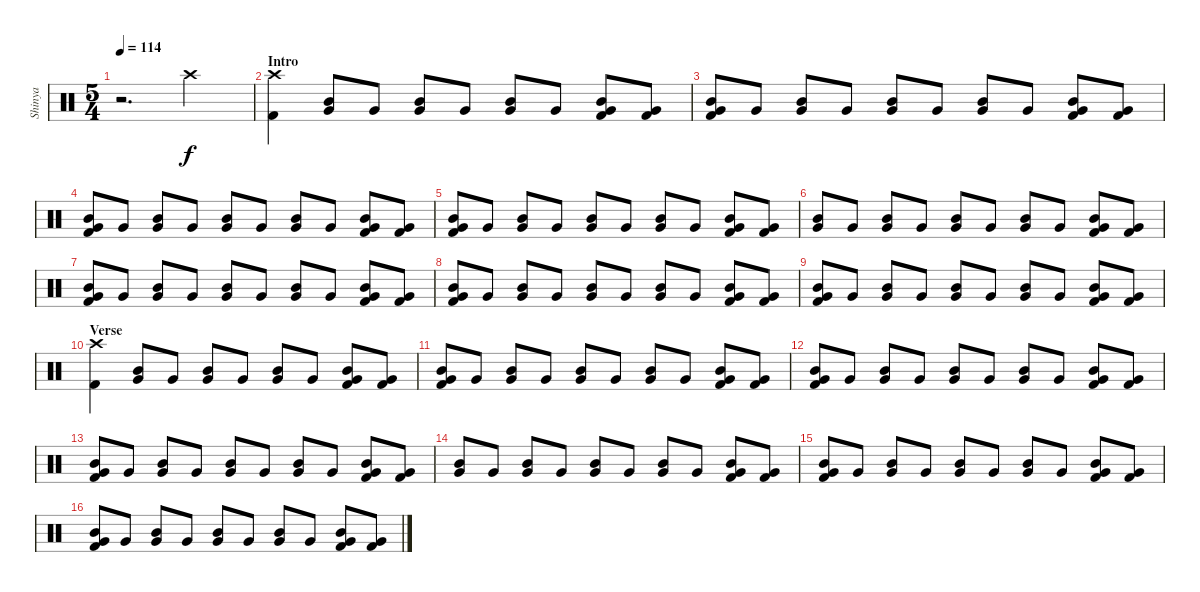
\track ("Shinya" "Shinya") {instrument percussion}
\staff {score}
\articulation defaults
\ts (5 4)
\tempo 114
\clef neutral
\ks c
r.2{d dy f} "Crash high (hit)".2 |
\section ("" "Intro")
("Crash high (hit)" "Kick (hit) 2").4 ("Mid Tom (hit)" "Very Low Tom (hit)").8 "Very Low Tom (hit)".8 ("Mid Tom (hit)" "Very Low Tom (hit)").8 "Very Low Tom (hit)".8 ("Mid Tom (hit)" "Very Low Tom (hit)").8 "Very Low Tom (hit)".8 ("Mid Tom (hit)" "Very Low Tom (hit)" "Kick (hit) 2").8 ("Very Low Tom (hit)" "Kick (hit) 2").8 |
("Mid Tom (hit)" "Very Low Tom (hit)" "Kick (hit) 2").8 "Very Low Tom (hit)".8 ("Mid Tom (hit)" "Very Low Tom (hit)").8 "Very Low Tom (hit)".8 ("Mid Tom (hit)" "Very Low Tom (hit)").8 "Very Low Tom (hit)".8 ("Mid Tom (hit)" "Very Low Tom (hit)").8 "Very Low Tom (hit)".8 ("Mid Tom (hit)" "Very Low Tom (hit)" "Kick (hit) 2").8 ("Very Low Tom (hit)" "Kick (hit) 2").8 |
("Mid Tom (hit)" "Very Low Tom (hit)" "Kick (hit) 2").8 "Very Low Tom (hit)".8 ("Mid Tom (hit)" "Very Low Tom (hit)").8 "Very Low Tom (hit)".8 ("Mid Tom (hit)" "Very Low Tom (hit)").8 "Very Low Tom (hit)".8 ("Mid Tom (hit)" "Very Low Tom (hit)").8 "Very Low Tom (hit)".8 ("Mid Tom (hit)" "Very Low Tom (hit)" "Kick (hit) 2").8 ("Very Low Tom (hit)" "Kick (hit) 2").8 |
("Mid Tom (hit)" "Very Low Tom (hit)" "Kick (hit) 2").8 "Very Low Tom (hit)".8 ("Mid Tom (hit)" "Very Low Tom (hit)").8 "Very Low Tom (hit)".8 ("Mid Tom (hit)" "Very Low Tom (hit)").8 "Very Low Tom (hit)".8 ("Mid Tom (hit)" "Very Low Tom (hit)").8 "Very Low Tom (hit)".8 ("Mid Tom (hit)" "Very Low Tom (hit)" "Kick (hit) 2").8 ("Very Low Tom (hit)" "Kick (hit) 2").8 |
("Mid Tom (hit)" "Very Low Tom (hit)").8 "Very Low Tom (hit)".8 ("Mid Tom (hit)" "Very Low Tom (hit)").8 "Very Low Tom (hit)".8 ("Mid Tom (hit)" "Very Low Tom (hit)").8 "Very Low Tom (hit)".8 ("Mid Tom (hit)" "Very Low Tom (hit)").8 "Very Low Tom (hit)".8 ("Mid Tom (hit)" "Very Low Tom (hit)" "Kick (hit) 2").8 ("Very Low Tom (hit)" "Kick (hit) 2").8 |
("Mid Tom (hit)" "Very Low Tom (hit)" "Kick (hit) 2").8 "Very Low Tom (hit)".8 ("Mid Tom (hit)" "Very Low Tom (hit)").8 "Very Low Tom (hit)".8 ("Mid Tom (hit)" "Very Low Tom (hit)").8 "Very Low Tom (hit)".8 ("Mid Tom (hit)" "Very Low Tom (hit)").8 "Very Low Tom (hit)".8 ("Mid Tom (hit)" "Very Low Tom (hit)" "Kick (hit) 2").8 ("Very Low Tom (hit)" "Kick (hit) 2").8 |
("Mid Tom (hit)" "Very Low Tom (hit)" "Kick (hit) 2").8 "Very Low Tom (hit)".8 ("Mid Tom (hit)" "Very Low Tom (hit)").8 "Very Low Tom (hit)".8 ("Mid Tom (hit)" "Very Low Tom (hit)").8 "Very Low Tom (hit)".8 ("Mid Tom (hit)" "Very Low Tom (hit)").8 "Very Low Tom (hit)".8 ("Mid Tom (hit)" "Very Low Tom (hit)" "Kick (hit) 2").8 ("Very Low Tom (hit)" "Kick (hit) 2").8 |
("Mid Tom (hit)" "Very Low Tom (hit)" "Kick (hit) 2").8 "Very Low Tom (hit)".8 ("Mid Tom (hit)" "Very Low Tom (hit)").8 "Very Low Tom (hit)".8 ("Mid Tom (hit)" "Very Low Tom (hit)").8 "Very Low Tom (hit)".8 ("Mid Tom (hit)" "Very Low Tom (hit)").8 "Very Low Tom (hit)".8 ("Mid Tom (hit)" "Very Low Tom (hit)" "Kick (hit) 2").8 ("Very Low Tom (hit)" "Kick (hit) 2").8 |
\section ("" "Verse")
("Crash high (hit)" "Kick (hit) 2").4 ("Mid Tom (hit)" "Very Low Tom (hit)").8 "Very Low Tom (hit)".8 ("Mid Tom (hit)" "Very Low Tom (hit)").8 "Very Low Tom (hit)".8 ("Mid Tom (hit)" "Very Low Tom (hit)").8 "Very Low Tom (hit)".8 ("Mid Tom (hit)" "Very Low Tom (hit)" "Kick (hit) 2").8 ("Very Low Tom (hit)" "Kick (hit) 2").8 |
("Mid Tom (hit)" "Very Low Tom (hit)" "Kick (hit) 2").8 "Very Low Tom (hit)".8 ("Mid Tom (hit)" "Very Low Tom (hit)").8 "Very Low Tom (hit)".8 ("Mid Tom (hit)" "Very Low Tom (hit)").8 "Very Low Tom (hit)".8 ("Mid Tom (hit)" "Very Low Tom (hit)").8 "Very Low Tom (hit)".8 ("Mid Tom (hit)" "Very Low Tom (hit)" "Kick (hit) 2").8 ("Very Low Tom (hit)" "Kick (hit) 2").8 |
("Mid Tom (hit)" "Very Low Tom (hit)" "Kick (hit) 2").8 "Very Low Tom (hit)".8 ("Mid Tom (hit)" "Very Low Tom (hit)").8 "Very Low Tom (hit)".8 ("Mid Tom (hit)" "Very Low Tom (hit)").8 "Very Low Tom (hit)".8 ("Mid Tom (hit)" "Very Low Tom (hit)").8 "Very Low Tom (hit)".8 ("Mid Tom (hit)" "Very Low Tom (hit)" "Kick (hit) 2").8 ("Very Low Tom (hit)" "Kick (hit) 2").8 |
("Mid Tom (hit)" "Very Low Tom (hit)" "Kick (hit) 2").8 "Very Low Tom (hit)".8 ("Mid Tom (hit)" "Very Low Tom (hit)").8 "Very Low Tom (hit)".8 ("Mid Tom (hit)" "Very Low Tom (hit)").8 "Very Low Tom (hit)".8 ("Mid Tom (hit)" "Very Low Tom (hit)").8 "Very Low Tom (hit)".8 ("Mid Tom (hit)" "Very Low Tom (hit)" "Kick (hit) 2").8 ("Very Low Tom (hit)" "Kick (hit) 2").8 |
("Mid Tom (hit)" "Very Low Tom (hit)").8 "Very Low Tom (hit)".8 ("Mid Tom (hit)" "Very Low Tom (hit)").8 "Very Low Tom (hit)".8 ("Mid Tom (hit)" "Very Low Tom (hit)").8 "Very Low Tom (hit)".8 ("Mid Tom (hit)" "Very Low Tom (hit)").8 "Very Low Tom (hit)".8 ("Mid Tom (hit)" "Very Low Tom (hit)" "Kick (hit) 2").8 ("Very Low Tom (hit)" "Kick (hit) 2").8 |
("Mid Tom (hit)" "Very Low Tom (hit)" "Kick (hit) 2").8 "Very Low Tom (hit)".8 ("Mid Tom (hit)" "Very Low Tom (hit)").8 "Very Low Tom (hit)".8 ("Mid Tom (hit)" "Very Low Tom (hit)").8 "Very Low Tom (hit)".8 ("Mid Tom (hit)" "Very Low Tom (hit)").8 "Very Low Tom (hit)".8 ("Mid Tom (hit)" "Very Low Tom (hit)" "Kick (hit) 2").8 ("Very Low Tom (hit)" "Kick (hit) 2").8 |
("Mid Tom (hit)" "Very Low Tom (hit)" "Kick (hit) 2").8 "Very Low Tom (hit)".8 ("Mid Tom (hit)" "Very Low Tom (hit)").8 "Very Low Tom (hit)".8 ("Mid Tom (hit)" "Very Low Tom (hit)").8 "Very Low Tom (hit)".8 ("Mid Tom (hit)" "Very Low Tom (hit)").8 "Very Low Tom (hit)".8 ("Mid Tom (hit)" "Very Low Tom (hit)" "Kick (hit) 2").8 ("Very Low Tom (hit)" "Kick (hit) 2").8
